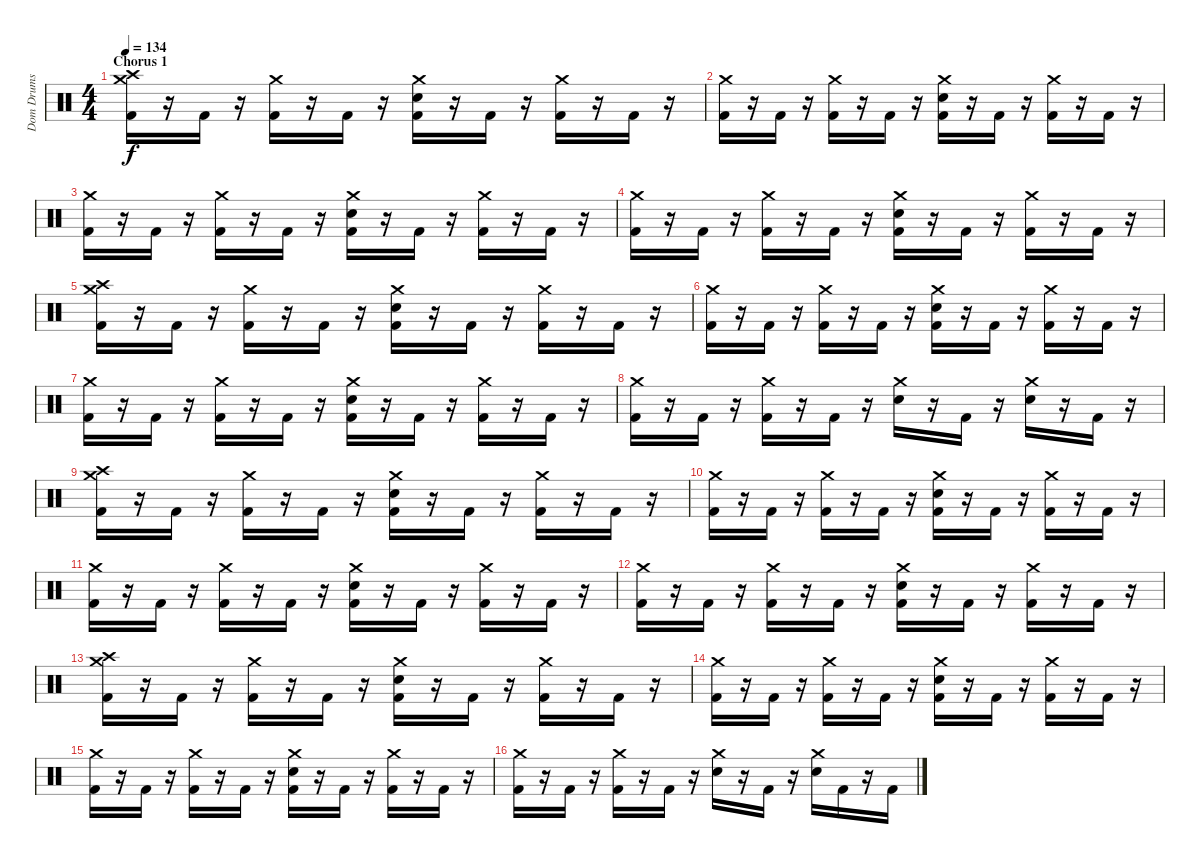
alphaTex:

\track ("Dom Drums" "Dom Drums") {instrument percussion}
\staff {score}
\articulation defaults
\ts (4 4)
\section ("" "Chorus 1")
\tempo 134
\clef neutral
\ks c
("Crash medium (hit)" "Crash high (hit)" "Kick (hit) 2").16{dy f} r.16 "Kick (hit) 2".16 r.16 ("Crash medium (hit)" "Kick (hit) 2").16 r.16 "Kick (hit) 2".16 r.16 ("Crash medium (hit)" "Electric Snare (hit)" "Kick (hit) 2").16 r.16 "Kick (hit) 2".16 r.16 ("Crash medium (hit)" "Kick (hit) 2").16 r.16 "Kick (hit) 2".16 r.16 |
("Crash medium (hit)" "Kick (hit) 2").16 r.16 "Kick (hit) 2".16 r.16 ("Crash medium (hit)" "Kick (hit) 2").16 r.16 "Kick (hit) 2".16 r.16 ("Crash medium (hit)" "Electric Snare (hit)" "Kick (hit) 2").16 r.16 "Kick (hit) 2".16 r.16 ("Crash medium (hit)" "Kick (hit) 2").16 r.16 "Kick (hit) 2".16 r.16 |
("Crash medium (hit)" "Kick (hit) 2").16 r.16 "Kick (hit) 2".16 r.16 ("Crash medium (hit)" "Kick (hit) 2").16 r.16 "Kick (hit) 2".16 r.16 ("Crash medium (hit)" "Electric Snare (hit)" "Kick (hit) 2").16 r.16 "Kick (hit) 2".16 r.16 ("Crash medium (hit)" "Kick (hit) 2").16 r.16 "Kick (hit) 2".16 r.16 |
("Crash medium (hit)" "Kick (hit) 2").16 r.16 "Kick (hit) 2".16 r.16 ("Crash medium (hit)" "Kick (hit) 2").16 r.16 "Kick (hit) 2".16 r.16 ("Crash medium (hit)" "Electric Snare (hit)" "Kick (hit) 2").16 r.16 "Kick (hit) 2".16 r.16 ("Crash medium (hit)" "Kick (hit) 2").16 r.16 "Kick (hit) 2".16 r.16 |
("Crash medium (hit)" "Crash high (hit)" "Kick (hit) 2").16 r.16 "Kick (hit) 2".16 r.16 ("Crash medium (hit)" "Kick (hit) 2").16 r.16 "Kick (hit) 2".16 r.16 ("Crash medium (hit)" "Electric Snare (hit)" "Kick (hit) 2").16 r.16 "Kick (hit) 2".16 r.16 ("Crash medium (hit)" "Kick (hit) 2").16 r.16 "Kick (hit) 2".16 r.16 |
("Crash medium (hit)" "Kick (hit) 2").16 r.16 "Kick (hit) 2".16 r.16 ("Crash medium (hit)" "Kick (hit) 2").16 r.16 "Kick (hit) 2".16 r.16 ("Crash medium (hit)" "Electric Snare (hit)" "Kick (hit) 2").16 r.16 "Kick (hit) 2".16 r.16 ("Crash medium (hit)" "Kick (hit) 2").16 r.16 "Kick (hit) 2".16 r.16 |
("Crash medium (hit)" "Kick (hit) 2").16 r.16 "Kick (hit) 2".16 r.16 ("Crash medium (hit)" "Kick (hit) 2").16 r.16 "Kick (hit) 2".16 r.16 ("Crash medium (hit)" "Electric Snare (hit)" "Kick (hit) 2").16 r.16 "Kick (hit) 2".16 r.16 ("Crash medium (hit)" "Kick (hit) 2").16 r.16 "Kick (hit) 2".16 r.16 |
("Crash medium (hit)" "Kick (hit) 2").16 r.16 "Kick (hit) 2".16 r.16 ("Crash medium (hit)" "Kick (hit) 2").16 r.16 "Kick (hit) 2".16 r.16 ("Crash medium (hit)" "Electric Snare (hit)").16 r.16 "Kick (hit) 2".16 r.16 ("Crash medium (hit)" "Electric Snare (hit)").16 r.16 "Kick (hit) 2".16 r.16 |
("Crash medium (hit)" "Crash high (hit)" "Kick (hit) 2").16 r.16 "Kick (hit) 2".16 r.16 ("Crash medium (hit)" "Kick (hit) 2").16 r.16 "Kick (hit) 2".16 r.16 ("Crash medium (hit)" "Electric Snare (hit)" "Kick (hit) 2").16 r.16 "Kick (hit) 2".16 r.16 ("Crash medium (hit)" "Kick (hit) 2").16 r.16 "Kick (hit) 2".16 r.16 |
("Crash medium (hit)" "Kick (hit) 2").16 r.16 "Kick (hit) 2".16 r.16 ("Crash medium (hit)" "Kick (hit) 2").16 r.16 "Kick (hit) 2".16 r.16 ("Crash medium (hit)" "Electric Snare (hit)" "Kick (hit) 2").16 r.16 "Kick (hit) 2".16 r.16 ("Crash medium (hit)" "Kick (hit) 2").16 r.16 "Kick (hit) 2".16 r.16 |
("Crash medium (hit)" "Kick (hit) 2").16 r.16 "Kick (hit) 2".16 r.16 ("Crash medium (hit)" "Kick (hit) 2").16 r.16 "Kick (hit) 2".16 r.16 ("Crash medium (hit)" "Electric Snare (hit)" "Kick (hit) 2").16 r.16 "Kick (hit) 2".16 r.16 ("Crash medium (hit)" "Kick (hit) 2").16 r.16 "Kick (hit) 2".16 r.16 |
("Crash medium (hit)" "Kick (hit) 2").16 r.16 "Kick (hit) 2".16 r.16 ("Crash medium (hit)" "Kick (hit) 2").16 r.16 "Kick (hit) 2".16 r.16 ("Crash medium (hit)" "Electric Snare (hit)" "Kick (hit) 2").16 r.16 "Kick (hit) 2".16 r.16 ("Crash medium (hit)" "Kick (hit) 2").16 r.16 "Kick (hit) 2".16 r.16 |
("Crash medium (hit)" "Crash high (hit)" "Kick (hit) 2").16 r.16 "Kick (hit) 2".16 r.16 ("Crash medium (hit)" "Kick (hit) 2").16 r.16 "Kick (hit) 2".16 r.16 ("Crash medium (hit)" "Electric Snare (hit)" "Kick (hit) 2").16 r.16 "Kick (hit) 2".16 r.16 ("Crash medium (hit)" "Kick (hit) 2").16 r.16 "Kick (hit) 2".16 r.16 |
("Crash medium (hit)" "Kick (hit) 2").16 r.16 "Kick (hit) 2".16 r.16 ("Crash medium (hit)" "Kick (hit) 2").16 r.16 "Kick (hit) 2".16 r.16 ("Crash medium (hit)" "Electric Snare (hit)" "Kick (hit) 2").16 r.16 "Kick (hit) 2".16 r.16 ("Crash medium (hit)" "Kick (hit) 2").16 r.16 "Kick (hit) 2".16 r.16 |
("Crash medium (hit)" "Kick (hit) 2").16 r.16 "Kick (hit) 2".16 r.16 ("Crash medium (hit)" "Kick (hit) 2").16 r.16 "Kick (hit) 2".16 r.16 ("Crash medium (hit)" "Electric Snare (hit)" "Kick (hit) 2").16 r.16 "Kick (hit) 2".16 r.16 ("Crash medium (hit)" "Kick (hit) 2").16 r.16 "Kick (hit) 2".16 r.16 |
("Crash medium (hit)" "Kick (hit) 2").16 r.16 "Kick (hit) 2".16 r.16 ("Crash medium (hit)" "Kick (hit) 2").16 r.16 "Kick (hit) 2".16 r.16 ("Crash medium (hit)" "Electric Snare (hit)").16 r.16 "Kick (hit) 2".16 r.16 ("Crash medium (hit)" "Electric Snare (hit)").16 "Kick (hit) 2".16 r.16 "Kick (hit) 2".16
